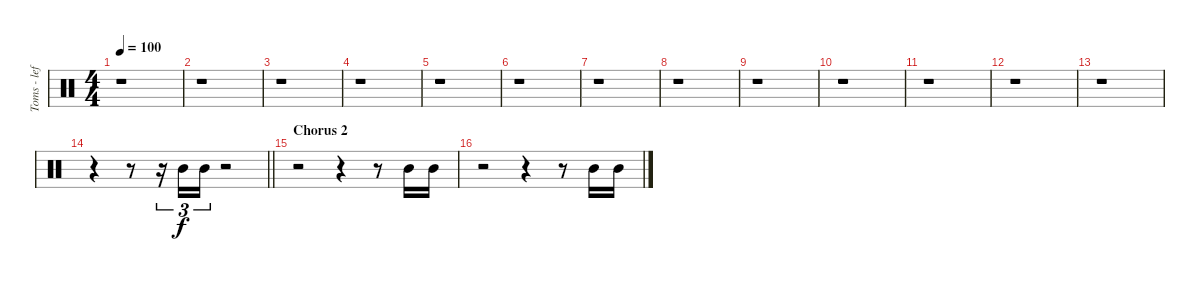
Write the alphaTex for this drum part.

\track ("Toms - left" "Toms - lef") {instrument percussion}
\staff {score}
\articulation defaults
\ts (4 4)
\tempo 100
\clef neutral
\ks c
r.1{dy f} |
r.1 |
r.1 |
r.1 |
r.1 |
r.1 |
r.1 |
r.1 |
r.1 |
r.1 |
r.1 |
r.1 |
r.1 |
\barLineRight lightlight
r.4 r.8 r.16{tu (3 2)} "Mid Tom (hit)".16{tu (3 2)} "Mid Tom (hit)".16{tu (3 2)} r.2 |
\section ("" "Chorus 2")
r.2 r.4 r.8 "Mid Tom (hit)".16 "Mid Tom (hit)".16 |
r.2 r.4 r.8 "Mid Tom (hit)".16 "Mid Tom (hit)".16
